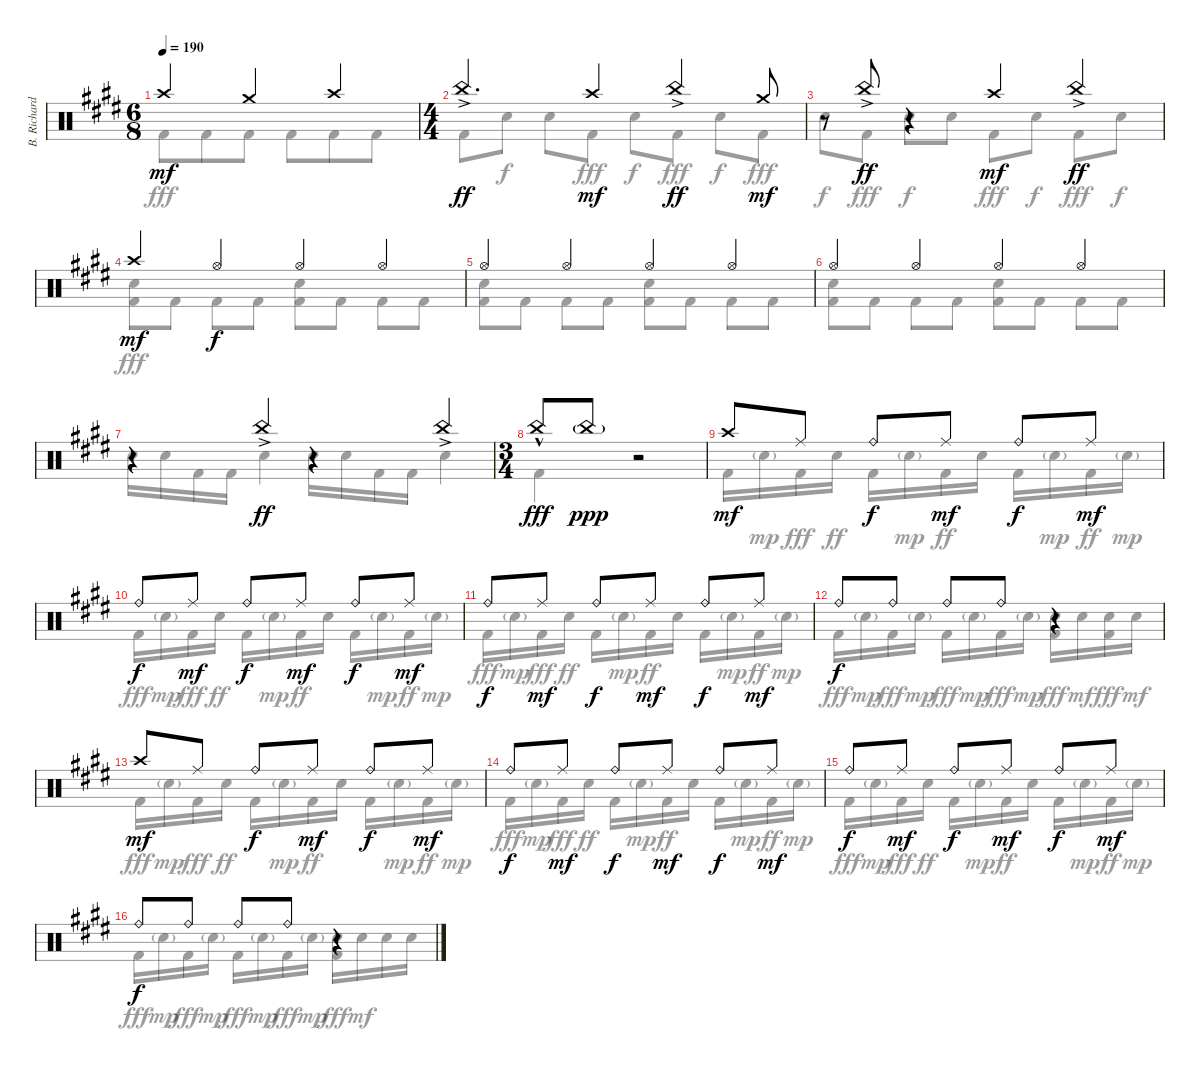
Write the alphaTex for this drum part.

\track ("B. Richardson Drums" "B. Richard") {instrument percussion}
\staff {score}
\articulation defaults
\voice
\ts (6 8)
\tempo 190
\clef neutral
\ks c#minor "Crash high (hit)".4{dy mf} "Crash medium (hit)".4 "Crash high (hit)".4
|
\ts (4 4)
"China (hit)"{ac}.4{d dy ff} "Crash high (hit)".4{dy mf} "China (hit)"{ac}.4{dy ff} "Crash medium (hit)".8{dy mf} |
r.8 "China (hit)"{ac}.8{dy ff} r.4 "Crash high (hit)".4{dy mf} "China (hit)"{ac}.4{dy ff} |
"Crash high (hit)".4{dy mf} "Hi-Hat (open)".4{dy f} "Hi-Hat (open)".4 "Hi-Hat (open)".4 |
"Hi-Hat (open)".4 "Hi-Hat (open)".4 "Hi-Hat (open)".4 "Hi-Hat (open)".4 |
"Hi-Hat (open)".4 "Hi-Hat (open)".4 "Hi-Hat (open)".4 "Hi-Hat (open)".4 |
r.4 "China (hit)"{ac}.4{dy ff} r.4 "China (hit)"{ac}.4 |
\ts (3 4)
"China (hit)"{hac}.8{dy fff} "China (hit)"{g}.8{dy ppp} r.2 |
"Crash high (hit)".8{dy mf} "Ride (middle)".8 "Ride (bell)".8{dy f} "Ride (middle)".8{dy mf} "Ride (bell)".8{dy f} "Ride (middle)".8{dy mf} |
"Ride (bell)".8{dy f} "Ride (middle)".8{dy mf} "Ride (bell)".8{dy f} "Ride (middle)".8{dy mf} "Ride (bell)".8{dy f} "Ride (middle)".8{dy mf} |
"Ride (bell)".8{dy f} "Ride (middle)".8{dy mf} "Ride (bell)".8{dy f} "Ride (middle)".8{dy mf} "Ride (bell)".8{dy f} "Ride (middle)".8{dy mf} |
"Ride (bell)".8{dy f} "Ride (bell)".8 "Ride (bell)".8 "Ride (bell)".8 r.4 |
"Crash high (hit)".8{dy mf} "Ride (middle)".8 "Ride (bell)".8{dy f} "Ride (middle)".8{dy mf} "Ride (bell)".8{dy f} "Ride (middle)".8{dy mf} |
"Ride (bell)".8{dy f} "Ride (middle)".8{dy mf} "Ride (bell)".8{dy f} "Ride (middle)".8{dy mf} "Ride (bell)".8{dy f} "Ride (middle)".8{dy mf} |
"Ride (bell)".8{dy f} "Ride (middle)".8{dy mf} "Ride (bell)".8{dy f} "Ride (middle)".8{dy mf} "Ride (bell)".8{dy f} "Ride (middle)".8{dy mf} |
"Ride (bell)".8{dy f} "Ride (bell)".8 "Ride (bell)".8 "Ride (bell)".8 r.4
\voice
\clef neutral
\ottava regular
\simile none
\ks c#minor "Kick (hit) 2".8{dy fff} "Kick (hit) 2".8 "Kick (hit) 2".8 "Kick (hit) 2".8 "Kick (hit) 2".8 "Kick (hit) 2".8
|
"Kick (hit) 2".8 "Electric Snare (hit)".8{dy f} "Electric Snare (hit)".8 "Kick (hit) 2".8{dy fff} "Electric Snare (hit)".8{dy f} "Kick (hit) 2".8{dy fff} "Electric Snare (hit)".8{dy f} "Kick (hit) 2".8{dy fff} |
"Electric Snare (hit)".8{dy f} "Kick (hit) 2".8{dy fff} "Electric Snare (hit)".8{dy f} "Electric Snare (hit)".8 "Kick (hit) 2".8{dy fff} "Electric Snare (hit)".8{dy f} "Kick (hit) 2".8{dy fff} "Electric Snare (hit)".8{dy f} |
("Electric Snare (hit)" "Kick (hit) 2").8{dy fff} "Kick (hit) 2".8 "Kick (hit) 2".8 "Kick (hit) 2".8 ("Electric Snare (hit)" "Kick (hit) 2").8 "Kick (hit) 2".8 "Kick (hit) 2".8 "Kick (hit) 2".8 |
("Electric Snare (hit)" "Kick (hit) 2").8 "Kick (hit) 2".8 "Kick (hit) 2".8 "Kick (hit) 2".8 ("Electric Snare (hit)" "Kick (hit) 2").8 "Kick (hit) 2".8 "Kick (hit) 2".8 "Kick (hit) 2".8 |
("Electric Snare (hit)" "Kick (hit) 2").8 "Kick (hit) 2".8 "Kick (hit) 2".8 "Kick (hit) 2".8 ("Electric Snare (hit)" "Kick (hit) 2").8 "Kick (hit) 2".8 "Kick (hit) 2".8 "Kick (hit) 2".8 |
"Electric Snare (hit)".16 "Electric Snare (hit)".16 "Kick (hit) 2".16 "Kick (hit) 2".16 "Electric Snare (hit)".4 "Electric Snare (hit)".16 "Electric Snare (hit)".16 "Kick (hit) 2".16 "Kick (hit) 2".16 "Electric Snare (hit)".4 |
"Kick (hit) 2".4 r.2 |
"Kick (hit) 2".16 "Electric Snare (hit)"{g}.16{dy mp} "Kick (hit) 2".16{dy fff} "Electric Snare (hit)".16{dy ff} "Kick (hit) 2".16 "Electric Snare (hit)"{g}.16{dy mp} "Kick (hit) 2".16{dy ff} "Electric Snare (hit)".16 "Kick (hit) 2".16 "Electric Snare (hit)"{g}.16{dy mp} "Kick (hit) 2".16{dy ff} "Electric Snare (hit)"{g}.16{dy mp} |
"Kick (hit) 2".16{dy fff} "Electric Snare (hit)"{g}.16{dy mp} "Kick (hit) 2".16{dy fff} "Electric Snare (hit)".16{dy ff} "Kick (hit) 2".16 "Electric Snare (hit)"{g}.16{dy mp} "Kick (hit) 2".16{dy ff} "Electric Snare (hit)".16 "Kick (hit) 2".16 "Electric Snare (hit)"{g}.16{dy mp} "Kick (hit) 2".16{dy ff} "Electric Snare (hit)"{g}.16{dy mp} |
"Kick (hit) 2".16{dy fff} "Electric Snare (hit)"{g}.16{dy mp} "Kick (hit) 2".16{dy fff} "Electric Snare (hit)".16{dy ff} "Kick (hit) 2".16 "Electric Snare (hit)"{g}.16{dy mp} "Kick (hit) 2".16{dy ff} "Electric Snare (hit)".16 "Kick (hit) 2".16 "Electric Snare (hit)"{g}.16{dy mp} "Kick (hit) 2".16{dy ff} "Electric Snare (hit)"{g}.16{dy mp} |
"Kick (hit) 2".16{dy fff} "Electric Snare (hit)"{g}.16{dy mp} "Kick (hit) 2".16{dy fff} "Electric Snare (hit)"{g}.16{dy mp} "Kick (hit) 2".16{dy fff} "Electric Snare (hit)"{g}.16{dy mp} "Kick (hit) 2".16{dy fff} "Electric Snare (hit)"{g}.16{dy mp} ("Electric Snare (hit)" "Kick (hit) 2").16{dy fff} "Electric Snare (hit)".16{dy mf} ("Electric Snare (hit)" "Kick (hit) 2").16{dy fff} "Electric Snare (hit)".16{dy mf} |
"Kick (hit) 2".16{dy fff} "Electric Snare (hit)"{g}.16{dy mp} "Kick (hit) 2".16{dy fff} "Electric Snare (hit)".16{dy ff} "Kick (hit) 2".16 "Electric Snare (hit)"{g}.16{dy mp} "Kick (hit) 2".16{dy ff} "Electric Snare (hit)".16 "Kick (hit) 2".16 "Electric Snare (hit)"{g}.16{dy mp} "Kick (hit) 2".16{dy ff} "Electric Snare (hit)"{g}.16{dy mp} |
"Kick (hit) 2".16{dy fff} "Electric Snare (hit)"{g}.16{dy mp} "Kick (hit) 2".16{dy fff} "Electric Snare (hit)".16{dy ff} "Kick (hit) 2".16 "Electric Snare (hit)"{g}.16{dy mp} "Kick (hit) 2".16{dy ff} "Electric Snare (hit)".16 "Kick (hit) 2".16 "Electric Snare (hit)"{g}.16{dy mp} "Kick (hit) 2".16{dy ff} "Electric Snare (hit)"{g}.16{dy mp} |
"Kick (hit) 2".16{dy fff} "Electric Snare (hit)"{g}.16{dy mp} "Kick (hit) 2".16{dy fff} "Electric Snare (hit)".16{dy ff} "Kick (hit) 2".16 "Electric Snare (hit)"{g}.16{dy mp} "Kick (hit) 2".16{dy ff} "Electric Snare (hit)".16 "Kick (hit) 2".16 "Electric Snare (hit)"{g}.16{dy mp} "Kick (hit) 2".16{dy ff} "Electric Snare (hit)"{g}.16{dy mp} |
"Kick (hit) 2".16{dy fff} "Electric Snare (hit)"{g}.16{dy mp} "Kick (hit) 2".16{dy fff} "Electric Snare (hit)"{g}.16{dy mp} "Kick (hit) 2".16{dy fff} "Electric Snare (hit)"{g}.16{dy mp} "Kick (hit) 2".16{dy fff} "Electric Snare (hit)"{g}.16{dy mp} ("Electric Snare (hit)" "Kick (hit) 2").16{dy fff} "Electric Snare (hit)".16{dy mf} "Electric Snare (hit)".16 "Electric Snare (hit)".16
